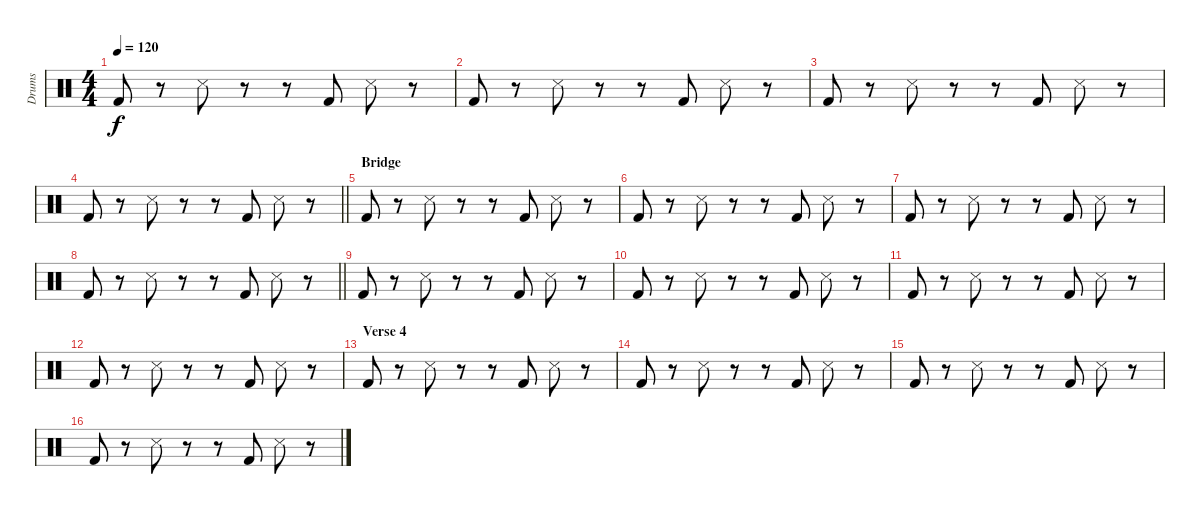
\track ("Drums" "Drums") {instrument percussion}
\staff {score}
\articulation defaults
\ts (4 4)
\tempo 120
\clef neutral
\ks c "Kick (hit) 2".8{dy f}
r.8 "Snare (side stick) 3".8 r.8 r.8 "Kick (hit) 2".8 "Snare (side stick) 3".8 r.8 |
"Kick (hit) 2".8 r.8 "Snare (side stick) 3".8 r.8 r.8 "Kick (hit) 2".8 "Snare (side stick) 3".8 r.8 |
"Kick (hit) 2".8 r.8 "Snare (side stick) 3".8 r.8 r.8 "Kick (hit) 2".8 "Snare (side stick) 3".8 r.8 |
\barLineRight lightlight "Kick (hit) 2".8
r.8 "Snare (side stick) 3".8 r.8 r.8 "Kick (hit) 2".8 "Snare (side stick) 3".8 r.8 |
\section ("" "Bridge")
"Kick (hit) 2".8 r.8 "Snare (side stick) 3".8 r.8 r.8 "Kick (hit) 2".8 "Snare (side stick) 3".8 r.8 |
"Kick (hit) 2".8 r.8 "Snare (side stick) 3".8 r.8 r.8 "Kick (hit) 2".8 "Snare (side stick) 3".8 r.8 |
"Kick (hit) 2".8 r.8 "Snare (side stick) 3".8 r.8 r.8 "Kick (hit) 2".8 "Snare (side stick) 3".8 r.8 |
\barLineRight lightlight "Kick (hit) 2".8
r.8 "Snare (side stick) 3".8 r.8 r.8 "Kick (hit) 2".8 "Snare (side stick) 3".8 r.8 |
"Kick (hit) 2".8 r.8 "Snare (side stick) 3".8 r.8 r.8 "Kick (hit) 2".8 "Snare (side stick) 3".8 r.8 |
"Kick (hit) 2".8 r.8 "Snare (side stick) 3".8 r.8 r.8 "Kick (hit) 2".8 "Snare (side stick) 3".8 r.8 |
"Kick (hit) 2".8 r.8 "Snare (side stick) 3".8 r.8 r.8 "Kick (hit) 2".8 "Snare (side stick) 3".8 r.8 |
"Kick (hit) 2".8 r.8 "Snare (side stick) 3".8 r.8 r.8 "Kick (hit) 2".8 "Snare (side stick) 3".8 r.8 |
\section ("" "Verse 4")
"Kick (hit) 2".8 r.8 "Snare (side stick) 3".8 r.8 r.8 "Kick (hit) 2".8 "Snare (side stick) 3".8 r.8 |
"Kick (hit) 2".8 r.8 "Snare (side stick) 3".8 r.8 r.8 "Kick (hit) 2".8 "Snare (side stick) 3".8 r.8 |
"Kick (hit) 2".8 r.8 "Snare (side stick) 3".8 r.8 r.8 "Kick (hit) 2".8 "Snare (side stick) 3".8 r.8 |
"Kick (hit) 2".8 r.8 "Snare (side stick) 3".8 r.8 r.8 "Kick (hit) 2".8 "Snare (side stick) 3".8 r.8
